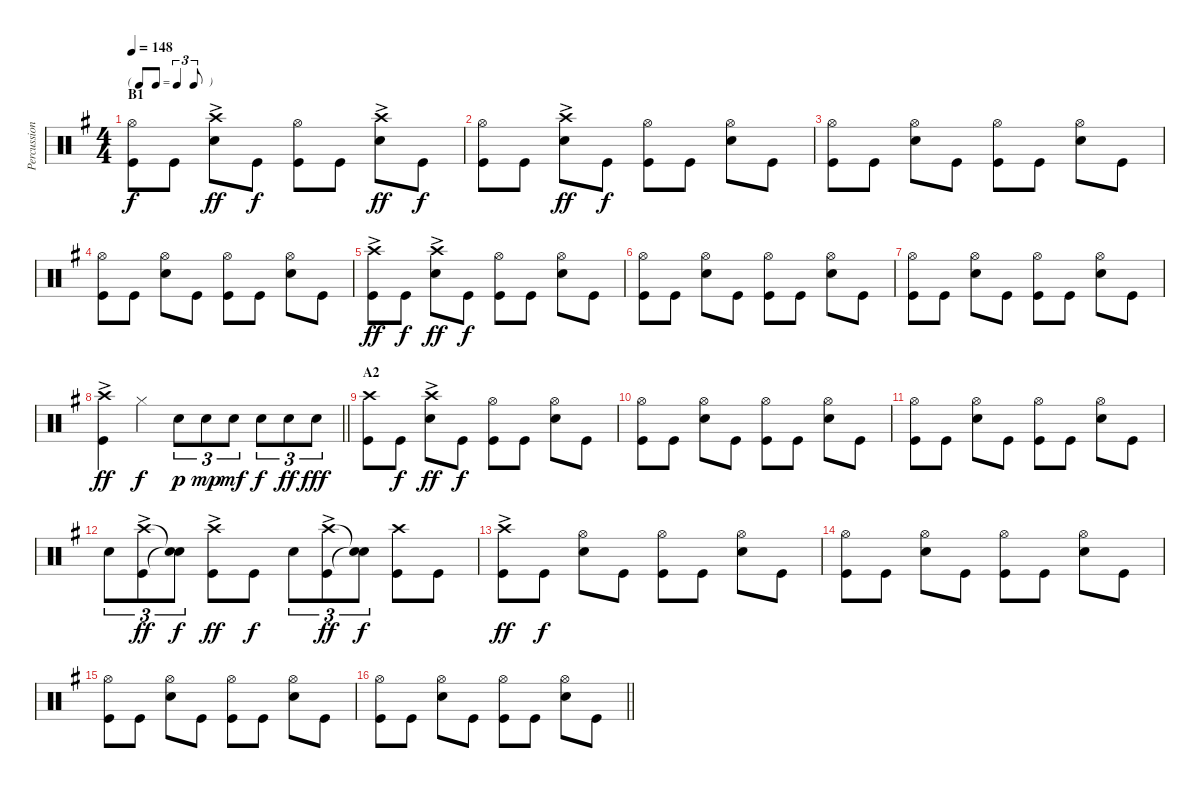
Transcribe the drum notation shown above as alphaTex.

\track ("Percussion" "Percussion") {instrument percussion}
\staff {score}
\articulation defaults
\ts (4 4)
\tf triplet8th
\section ("" "B1")
\tempo 148
\clef neutral
\ks g
("Hi-Hat (open)" "Kick (hit)").8{dy f} "Kick (hit)".8 ("Crash high (hit)"{ac} "Snare (hit) 2").8{dy ff} "Kick (hit)".8{dy f} ("Hi-Hat (open)" "Kick (hit)").8 "Kick (hit)".8 ("Crash high (hit)"{ac} "Snare (hit) 2").8{dy ff} "Kick (hit)".8{dy f} |
("Hi-Hat (open)" "Kick (hit)").8 "Kick (hit)".8 ("Crash high (hit)"{ac} "Snare (hit) 2").8{dy ff} "Kick (hit)".8{dy f} ("Hi-Hat (open)" "Kick (hit)").8 "Kick (hit)".8 ("Hi-Hat (open)" "Snare (hit) 2").8 "Kick (hit)".8 |
("Hi-Hat (open)" "Kick (hit)").8 "Kick (hit)".8 ("Hi-Hat (open)" "Snare (hit) 2").8 "Kick (hit)".8 ("Hi-Hat (open)" "Kick (hit)").8 "Kick (hit)".8 ("Hi-Hat (open)" "Snare (hit) 2").8 "Kick (hit)".8 |
("Hi-Hat (open)" "Kick (hit)").8 "Kick (hit)".8 ("Hi-Hat (open)" "Snare (hit) 2").8 "Kick (hit)".8 ("Hi-Hat (open)" "Kick (hit)").8 "Kick (hit)".8 ("Hi-Hat (open)" "Snare (hit) 2").8 "Kick (hit)".8 |
("Crash high (hit)"{ac} "Kick (hit)").8{dy ff} "Kick (hit)".8{dy f} ("Crash high (hit)"{ac} "Snare (hit) 2").8{dy ff} "Kick (hit)".8{dy f} ("Hi-Hat (open)" "Kick (hit)").8 "Kick (hit)".8 ("Hi-Hat (open)" "Snare (hit) 2").8 "Kick (hit)".8 |
("Hi-Hat (open)" "Kick (hit)").8 "Kick (hit)".8 ("Hi-Hat (open)" "Snare (hit) 2").8 "Kick (hit)".8 ("Hi-Hat (open)" "Kick (hit)").8 "Kick (hit)".8 ("Hi-Hat (open)" "Snare (hit) 2").8 "Kick (hit)".8 |
("Hi-Hat (open)" "Kick (hit)").8 "Kick (hit)".8 ("Hi-Hat (open)" "Snare (hit) 2").8 "Kick (hit)".8 ("Hi-Hat (open)" "Kick (hit)").8 "Kick (hit)".8 ("Hi-Hat (open)" "Snare (hit) 2").8 "Kick (hit)".8 |
\barLineRight lightlight
("Crash high (hit)"{ac} "Kick (hit)").4{dy ff} "Hi-Hat (closed)".4{dy f} "Snare (hit) 2".8{tu (3 2) dy p} "Snare (hit) 2".8{tu (3 2) dy mp} "Snare (hit) 2".8{tu (3 2) dy mf} "Snare (hit) 2".8{tu (3 2) dy f} "Snare (hit) 2".8{tu (3 2) dy ff} "Snare (hit) 2".8{tu (3 2) dy fff} |
\section ("" "A2")
("Crash high (hit)" "Kick (hit)").8 "Kick (hit)".8{dy f} ("Crash high (hit)"{ac} "Snare (hit) 2").8{dy ff} "Kick (hit)".8{dy f} ("Hi-Hat (open)" "Kick (hit)").8 "Kick (hit)".8 ("Hi-Hat (open)" "Snare (hit) 2").8 "Kick (hit)".8 |
("Hi-Hat (open)" "Kick (hit)").8 "Kick (hit)".8 ("Hi-Hat (open)" "Snare (hit) 2").8 "Kick (hit)".8 ("Hi-Hat (open)" "Kick (hit)").8 "Kick (hit)".8 ("Hi-Hat (open)" "Snare (hit) 2").8 "Kick (hit)".8 |
("Hi-Hat (open)" "Kick (hit)").8 "Kick (hit)".8 ("Hi-Hat (open)" "Snare (hit) 2").8 "Kick (hit)".8 ("Hi-Hat (open)" "Kick (hit)").8 "Kick (hit)".8 ("Hi-Hat (open)" "Snare (hit) 2").8 "Kick (hit)".8 |
"Snare (hit) 2".8{tu (3 2)} ("Crash high (hit)"{ac} "Kick (hit)").8{tu (3 2) dy ff} ("Snare (hit)"{t} "Snare (hit)"{t}).8{tu (3 2) dy f} ("Crash high (hit)"{ac} "Kick (hit)").8{dy ff} "Kick (hit)".8{dy f} "Snare (hit) 2".8{tu (3 2)} ("Crash high (hit)"{ac} "Kick (hit)").8{tu (3 2) dy ff} ("Snare (hit)"{t} "Snare (hit)"{t}).8{tu (3 2) dy f} ("Crash high (hit)" "Kick (hit)").8 "Kick (hit)".8 |
("Crash high (hit)"{ac} "Kick (hit)").8{dy ff} "Kick (hit)".8{dy f} ("Hi-Hat (open)" "Snare (hit) 2").8 "Kick (hit)".8 ("Hi-Hat (open)" "Kick (hit)").8 "Kick (hit)".8 ("Hi-Hat (open)" "Snare (hit) 2").8 "Kick (hit)".8 |
("Hi-Hat (open)" "Kick (hit)").8 "Kick (hit)".8 ("Hi-Hat (open)" "Snare (hit) 2").8 "Kick (hit)".8 ("Hi-Hat (open)" "Kick (hit)").8 "Kick (hit)".8 ("Hi-Hat (open)" "Snare (hit) 2").8 "Kick (hit)".8 |
("Hi-Hat (open)" "Kick (hit)").8 "Kick (hit)".8 ("Hi-Hat (open)" "Snare (hit) 2").8 "Kick (hit)".8 ("Hi-Hat (open)" "Kick (hit)").8 "Kick (hit)".8 ("Hi-Hat (open)" "Snare (hit) 2").8 "Kick (hit)".8 |
\barLineRight lightlight
("Hi-Hat (open)" "Kick (hit)").8 "Kick (hit)".8 ("Hi-Hat (open)" "Snare (hit) 2").8 "Kick (hit)".8 ("Hi-Hat (open)" "Kick (hit)").8 "Kick (hit)".8 ("Hi-Hat (open)" "Snare (hit) 2").8 "Kick (hit)".8
